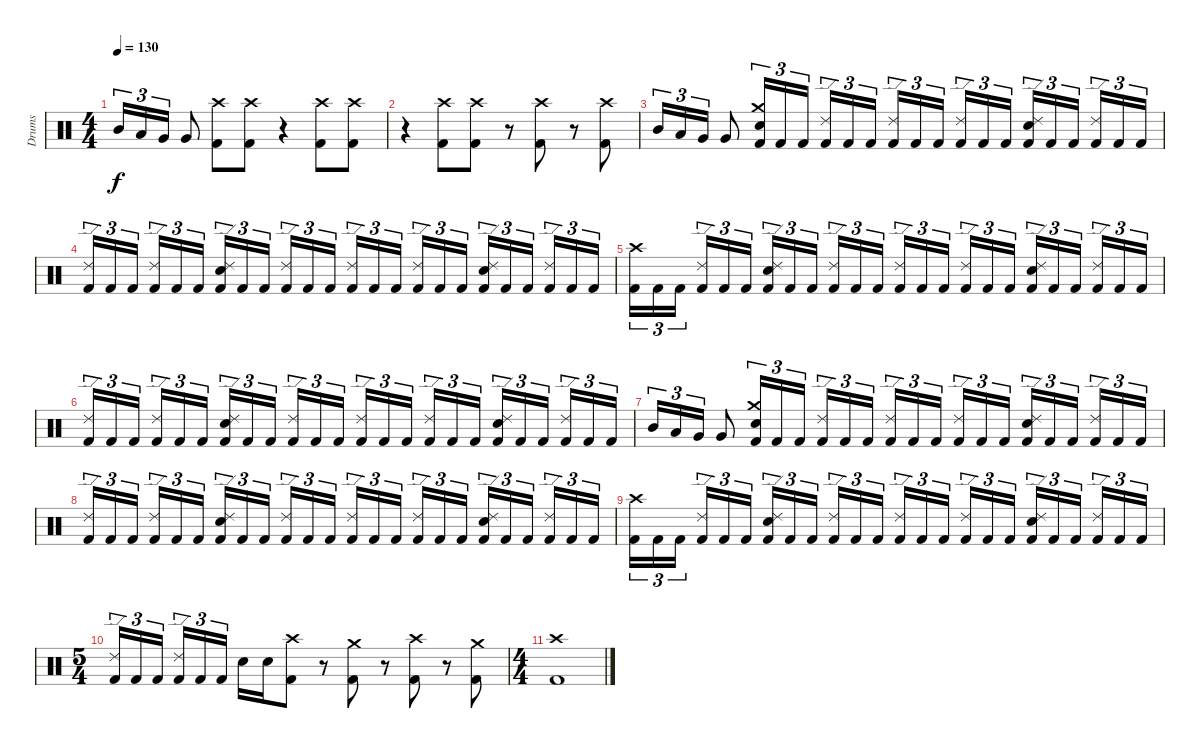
\track ("Drums" "Drums") {instrument percussion}
\staff {score}
\articulation defaults
\ts (4 4)
\tempo 130
\clef neutral
\ks c "Mid Tom (hit)".16{tu (3 2) dy f} "Low Tom (hit)".16{tu (3 2)} "Very Low Tom (hit)".16{tu (3 2)} "Very Low Tom (hit)".8
("Crash high (hit)" "Kick (hit) 2").8 ("Crash high (hit)" "Kick (hit) 2").8 r.4 ("Crash high (hit)" "Kick (hit) 2").8 ("Crash high (hit)" "Kick (hit) 2").8 |
r.4 ("Crash high (hit)" "Kick (hit) 2").8 ("Crash high (hit)" "Kick (hit) 2").8 r.8 ("Crash high (hit)" "Kick (hit) 2").8 r.8 ("Crash high (hit)" "Kick (hit) 2").8 |
"Mid Tom (hit)".16{tu (3 2)} "Low Tom (hit)".16{tu (3 2)} "Very Low Tom (hit)".16{tu (3 2)} "Very Low Tom (hit)".8 ("Crash medium (hit)" "Electric Snare (hit)" "Kick (hit) 2").16{tu (3 2)} "Kick (hit) 2".16{tu (3 2)} "Kick (hit) 2".16{tu (3 2) beam splitsecondary} ("Ride (edge) 2" "Kick (hit) 2").16{tu (3 2)} "Kick (hit) 2".16{tu (3 2)} "Kick (hit) 2".16{tu (3 2)} ("Ride (edge) 2" "Kick (hit) 2").16{tu (3 2)} "Kick (hit) 2".16{tu (3 2)} "Kick (hit) 2".16{tu (3 2) beam splitsecondary} ("Ride (edge) 2" "Kick (hit) 2").16{tu (3 2)} "Kick (hit) 2".16{tu (3 2)} "Kick (hit) 2".16{tu (3 2)} ("Ride (edge) 2" "Electric Snare (hit)" "Kick (hit) 2").16{tu (3 2)} "Kick (hit) 2".16{tu (3 2)} "Kick (hit) 2".16{tu (3 2) beam splitsecondary} ("Ride (edge) 2" "Kick (hit) 2").16{tu (3 2)} "Kick (hit) 2".16{tu (3 2)} "Kick (hit) 2".16{tu (3 2)} |
("Ride (edge) 2" "Kick (hit) 2").16{tu (3 2)} "Kick (hit) 2".16{tu (3 2)} "Kick (hit) 2".16{tu (3 2) beam splitsecondary} ("Ride (edge) 2" "Kick (hit) 2").16{tu (3 2)} "Kick (hit) 2".16{tu (3 2)} "Kick (hit) 2".16{tu (3 2)} ("Ride (edge) 2" "Electric Snare (hit)" "Kick (hit) 2").16{tu (3 2)} "Kick (hit) 2".16{tu (3 2)} "Kick (hit) 2".16{tu (3 2) beam splitsecondary} ("Ride (edge) 2" "Kick (hit) 2").16{tu (3 2)} "Kick (hit) 2".16{tu (3 2)} "Kick (hit) 2".16{tu (3 2)} ("Ride (edge) 2" "Kick (hit) 2").16{tu (3 2)} "Kick (hit) 2".16{tu (3 2)} "Kick (hit) 2".16{tu (3 2) beam splitsecondary} ("Ride (edge) 2" "Kick (hit) 2").16{tu (3 2)} "Kick (hit) 2".16{tu (3 2)} "Kick (hit) 2".16{tu (3 2)} ("Ride (edge) 2" "Electric Snare (hit)" "Kick (hit) 2").16{tu (3 2)} "Kick (hit) 2".16{tu (3 2)} "Kick (hit) 2".16{tu (3 2) beam splitsecondary} ("Ride (edge) 2" "Kick (hit) 2").16{tu (3 2)} "Kick (hit) 2".16{tu (3 2)} "Kick (hit) 2".16{tu (3 2)} |
("Crash high (hit)" "Kick (hit) 2").16{tu (3 2)} "Kick (hit) 2".16{tu (3 2)} "Kick (hit) 2".16{tu (3 2) beam splitsecondary} ("Ride (edge) 2" "Kick (hit) 2").16{tu (3 2)} "Kick (hit) 2".16{tu (3 2)} "Kick (hit) 2".16{tu (3 2)} ("Ride (edge) 2" "Electric Snare (hit)" "Kick (hit) 2").16{tu (3 2)} "Kick (hit) 2".16{tu (3 2)} "Kick (hit) 2".16{tu (3 2) beam splitsecondary} ("Ride (edge) 2" "Kick (hit) 2").16{tu (3 2)} "Kick (hit) 2".16{tu (3 2)} "Kick (hit) 2".16{tu (3 2)} ("Ride (edge) 2" "Kick (hit) 2").16{tu (3 2)} "Kick (hit) 2".16{tu (3 2)} "Kick (hit) 2".16{tu (3 2) beam splitsecondary} ("Ride (edge) 2" "Kick (hit) 2").16{tu (3 2)} "Kick (hit) 2".16{tu (3 2)} "Kick (hit) 2".16{tu (3 2)} ("Ride (edge) 2" "Electric Snare (hit)" "Kick (hit) 2").16{tu (3 2)} "Kick (hit) 2".16{tu (3 2)} "Kick (hit) 2".16{tu (3 2) beam splitsecondary} ("Ride (edge) 2" "Kick (hit) 2").16{tu (3 2)} "Kick (hit) 2".16{tu (3 2)} "Kick (hit) 2".16{tu (3 2)} |
("Ride (edge) 2" "Kick (hit) 2").16{tu (3 2)} "Kick (hit) 2".16{tu (3 2)} "Kick (hit) 2".16{tu (3 2) beam splitsecondary} ("Ride (edge) 2" "Kick (hit) 2").16{tu (3 2)} "Kick (hit) 2".16{tu (3 2)} "Kick (hit) 2".16{tu (3 2)} ("Ride (edge) 2" "Electric Snare (hit)" "Kick (hit) 2").16{tu (3 2)} "Kick (hit) 2".16{tu (3 2)} "Kick (hit) 2".16{tu (3 2) beam splitsecondary} ("Ride (edge) 2" "Kick (hit) 2").16{tu (3 2)} "Kick (hit) 2".16{tu (3 2)} "Kick (hit) 2".16{tu (3 2)} ("Ride (edge) 2" "Kick (hit) 2").16{tu (3 2)} "Kick (hit) 2".16{tu (3 2)} "Kick (hit) 2".16{tu (3 2) beam splitsecondary} ("Ride (edge) 2" "Kick (hit) 2").16{tu (3 2)} "Kick (hit) 2".16{tu (3 2)} "Kick (hit) 2".16{tu (3 2)} ("Ride (edge) 2" "Electric Snare (hit)" "Kick (hit) 2").16{tu (3 2)} "Kick (hit) 2".16{tu (3 2)} "Kick (hit) 2".16{tu (3 2) beam splitsecondary} ("Ride (edge) 2" "Kick (hit) 2").16{tu (3 2)} "Kick (hit) 2".16{tu (3 2)} "Kick (hit) 2".16{tu (3 2)} |
"Mid Tom (hit)".16{tu (3 2)} "Low Tom (hit)".16{tu (3 2)} "Very Low Tom (hit)".16{tu (3 2)} "Very Low Tom (hit)".8 ("Crash medium (hit)" "Electric Snare (hit)" "Kick (hit) 2").16{tu (3 2)} "Kick (hit) 2".16{tu (3 2)} "Kick (hit) 2".16{tu (3 2) beam splitsecondary} ("Ride (edge) 2" "Kick (hit) 2").16{tu (3 2)} "Kick (hit) 2".16{tu (3 2)} "Kick (hit) 2".16{tu (3 2)} ("Ride (edge) 2" "Kick (hit) 2").16{tu (3 2)} "Kick (hit) 2".16{tu (3 2)} "Kick (hit) 2".16{tu (3 2) beam splitsecondary} ("Ride (edge) 2" "Kick (hit) 2").16{tu (3 2)} "Kick (hit) 2".16{tu (3 2)} "Kick (hit) 2".16{tu (3 2)} ("Ride (edge) 2" "Electric Snare (hit)" "Kick (hit) 2").16{tu (3 2)} "Kick (hit) 2".16{tu (3 2)} "Kick (hit) 2".16{tu (3 2) beam splitsecondary} ("Ride (edge) 2" "Kick (hit) 2").16{tu (3 2)} "Kick (hit) 2".16{tu (3 2)} "Kick (hit) 2".16{tu (3 2)} |
("Ride (edge) 2" "Kick (hit) 2").16{tu (3 2)} "Kick (hit) 2".16{tu (3 2)} "Kick (hit) 2".16{tu (3 2) beam splitsecondary} ("Ride (edge) 2" "Kick (hit) 2").16{tu (3 2)} "Kick (hit) 2".16{tu (3 2)} "Kick (hit) 2".16{tu (3 2)} ("Ride (edge) 2" "Electric Snare (hit)" "Kick (hit) 2").16{tu (3 2)} "Kick (hit) 2".16{tu (3 2)} "Kick (hit) 2".16{tu (3 2) beam splitsecondary} ("Ride (edge) 2" "Kick (hit) 2").16{tu (3 2)} "Kick (hit) 2".16{tu (3 2)} "Kick (hit) 2".16{tu (3 2)} ("Ride (edge) 2" "Kick (hit) 2").16{tu (3 2)} "Kick (hit) 2".16{tu (3 2)} "Kick (hit) 2".16{tu (3 2) beam splitsecondary} ("Ride (edge) 2" "Kick (hit) 2").16{tu (3 2)} "Kick (hit) 2".16{tu (3 2)} "Kick (hit) 2".16{tu (3 2)} ("Ride (edge) 2" "Electric Snare (hit)" "Kick (hit) 2").16{tu (3 2)} "Kick (hit) 2".16{tu (3 2)} "Kick (hit) 2".16{tu (3 2) beam splitsecondary} ("Ride (edge) 2" "Kick (hit) 2").16{tu (3 2)} "Kick (hit) 2".16{tu (3 2)} "Kick (hit) 2".16{tu (3 2)} |
("Crash high (hit)" "Kick (hit) 2").16{tu (3 2)} "Kick (hit) 2".16{tu (3 2)} "Kick (hit) 2".16{tu (3 2) beam splitsecondary} ("Ride (edge) 2" "Kick (hit) 2").16{tu (3 2)} "Kick (hit) 2".16{tu (3 2)} "Kick (hit) 2".16{tu (3 2)} ("Ride (edge) 2" "Electric Snare (hit)" "Kick (hit) 2").16{tu (3 2)} "Kick (hit) 2".16{tu (3 2)} "Kick (hit) 2".16{tu (3 2) beam splitsecondary} ("Ride (edge) 2" "Kick (hit) 2").16{tu (3 2)} "Kick (hit) 2".16{tu (3 2)} "Kick (hit) 2".16{tu (3 2)} ("Ride (edge) 2" "Kick (hit) 2").16{tu (3 2)} "Kick (hit) 2".16{tu (3 2)} "Kick (hit) 2".16{tu (3 2) beam splitsecondary} ("Ride (edge) 2" "Kick (hit) 2").16{tu (3 2)} "Kick (hit) 2".16{tu (3 2)} "Kick (hit) 2".16{tu (3 2)} ("Ride (edge) 2" "Electric Snare (hit)" "Kick (hit) 2").16{tu (3 2)} "Kick (hit) 2".16{tu (3 2)} "Kick (hit) 2".16{tu (3 2) beam splitsecondary} ("Ride (edge) 2" "Kick (hit) 2").16{tu (3 2)} "Kick (hit) 2".16{tu (3 2)} "Kick (hit) 2".16{tu (3 2)} |
\ts (5 4)
("Ride (edge) 2" "Kick (hit) 2").16{tu (3 2)} "Kick (hit) 2".16{tu (3 2)} "Kick (hit) 2".16{tu (3 2) beam splitsecondary} ("Ride (edge) 2" "Kick (hit) 2").16{tu (3 2)} "Kick (hit) 2".16{tu (3 2)} "Kick (hit) 2".16{tu (3 2)} "Electric Snare (hit)".16 "Electric Snare (hit)".16 ("Crash high (hit)" "Kick (hit) 2").8 r.8 ("Crash medium (hit)" "Kick (hit) 2").8 r.8 ("Crash high (hit)" "Kick (hit) 2").8 r.8 ("Crash medium (hit)" "Kick (hit) 2").8 |
\ts (4 4)
("Crash high (hit)" "Kick (hit) 2").1
